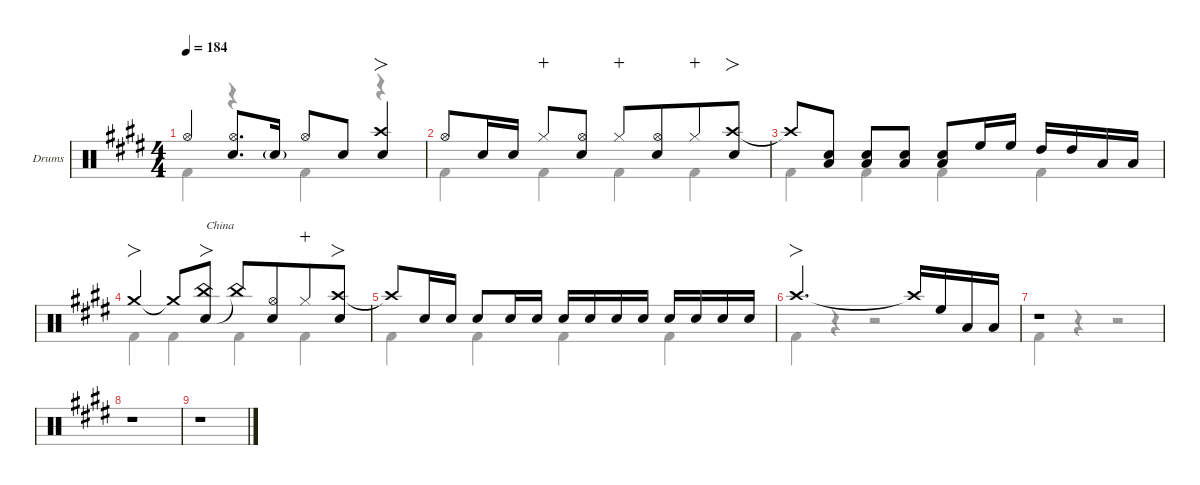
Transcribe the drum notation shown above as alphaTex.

\defaultSystemsLayout 4
\hideDynamics
\bracketExtendMode nobrackets
\firstSystemTrackNameOrientation horizontal
\track ("Drums" "Drums") {defaultSystemsLayout 4 instrument percussion}
\staff {score}
\articulation defaults
\voice
\ts (4 4)
\tempo 184
\clef neutral
\ks e "Hi-Hat (open)"{acc forcenatural}.4{dy f}
("Hi-Hat (open)"{acc forcenatural} "Snare (hit) 2"{acc forcenatural}).8{d} "Snare (hit) 2"{g acc forcenatural}.16{dy mf} "Hi-Hat (open)"{acc forcenatural}.8{dy f} "Snare (hit) 2"{acc forcenatural}.8 ("Snare (hit) 2"{acc forcenatural} "Crash high (hit)"{acc forcenatural}).4{fo} |
"Hi-Hat (open)"{acc forcenatural}.8 "Snare (hit) 2"{acc forcenatural}.16 "Snare (hit) 2"{acc forcenatural}.16{dy mf beam split} "Hi-Hat (closed)"{acc forcenatural}.8{dy mp wahc beam merge} ("Snare (hit) 2"{acc forcenatural} "Hi-Hat (open)"{acc forcenatural}).8{dy f beam split} "Hi-Hat (closed)"{acc forcenatural}.8{dy mp wahc} ("Snare (hit) 2"{acc forcenatural} "Hi-Hat (open)"{acc forcenatural}).8{dy f beam merge} "Hi-Hat (closed)"{acc forcenatural}.8{dy mp wahc} ("Crash high (hit)"{acc forcenatural} "Snare (hit) 2"{acc forcenatural}).8{fo dy f} |
"Crash high (hit)"{t acc forcenatural}.8 ("Snare (hit) 2"{acc forcenatural} "Low Tom (hit)"{acc forcenatural}).8 ("Snare (hit) 2"{acc forcenatural} "Low Tom (hit)"{acc forcenatural}).8 ("Snare (hit) 2"{acc forcenatural} "Low Tom (hit)"{acc forcenatural}).8 ("Snare (hit) 2"{acc forcenatural} "Low Tom (hit)"{acc forcenatural}).8 "High Floor Tom (hit)"{acc forcenatural}.16 "High Floor Tom (hit)"{acc forcenatural}.16{beam split} "High Tom (hit)"{acc forcenatural}.16 "High Tom (hit)"{acc forcenatural}.16 "Low Tom (hit)"{acc forcenatural}.16 "Low Tom (hit)"{acc forcenatural}.16 |
"Crash medium (hit)"{acc forcenatural}.4{fo} "Crash medium (hit)"{t acc forcenatural}.8 ("Snare (hit) 2"{acc forcenatural} "China (hit)"{acc forcenatural}).8{fo txt "China"} "China (hit)"{t acc forcenatural}.8 ("Snare (hit) 2"{acc forcenatural} "Hi-Hat (open)"{acc forcenatural}).8{beam merge} "Hi-Hat (closed)"{acc forcenatural}.8{dy mp wahc} ("Crash high (hit)"{acc forcenatural} "Snare (hit) 2"{acc forcenatural}).8{fo dy f} |
"Crash high (hit)"{t acc forcenatural}.8 "Snare (hit) 2"{acc forcenatural}.16 "Snare (hit) 2"{acc forcenatural}.16{dy mf beam split} "Snare (hit) 2"{acc forcenatural}.8{dy f} "Snare (hit) 2"{acc forcenatural}.16 "Snare (hit) 2"{acc forcenatural}.16{dy mf} "Snare (hit) 2"{acc forcenatural}.16{dy f} "Snare (hit) 2"{acc forcenatural}.16{dy mf} "Snare (hit) 2"{acc forcenatural}.16{dy f} "Snare (hit) 2"{acc forcenatural}.16{dy mf beam split} "Snare (hit) 2"{acc forcenatural}.16{dy f} "Snare (hit) 2"{acc forcenatural}.16{dy mf} "Snare (hit) 2"{acc forcenatural}.16{dy f} "Snare (hit) 2"{acc forcenatural}.16{dy mf} |
"Crash high (hit)"{acc forcenatural}.2{fo d dy f} "Crash high (hit)"{t acc forcenatural}.16 "High Floor Tom (hit)"{acc forcenatural}.16 "Low Tom (hit)"{acc forcenatural}.16 "Low Tom (hit)"{acc forcenatural}.16 |
r.1 |
r.1 |
r.1
\voice
\clef neutral
\ottava regular
\simile none
\ks e "Kick (hit) 2"{acc forcenatural}.4{dy f}
r.4 "Kick (hit) 2"{acc forcenatural}.4 r.4 |
"Kick (hit) 2"{acc forcenatural}.4 "Kick (hit) 2"{acc forcenatural}.4 "Kick (hit) 2"{acc forcenatural}.4 "Kick (hit) 2"{acc forcenatural}.4 |
"Kick (hit) 2"{acc forcenatural}.4 "Kick (hit) 2"{acc forcenatural}.4 "Kick (hit) 2"{acc forcenatural}.4 "Kick (hit) 2"{acc forcenatural}.4 |
"Kick (hit) 2"{acc forcenatural}.4 "Kick (hit) 2"{acc forcenatural}.4 "Kick (hit) 2"{acc forcenatural}.4 "Kick (hit) 2"{acc forcenatural}.4 |
"Kick (hit) 2"{acc forcenatural}.4 "Kick (hit) 2"{acc forcenatural}.4 "Kick (hit) 2"{acc forcenatural}.4 "Kick (hit) 2"{acc forcenatural}.4 |
"Kick (hit) 2"{acc forcenatural}.4 r.4 r.2 |
"Kick (hit) 2"{acc forcenatural}.4 r.4 r.2 |
r.1 |
r.1
